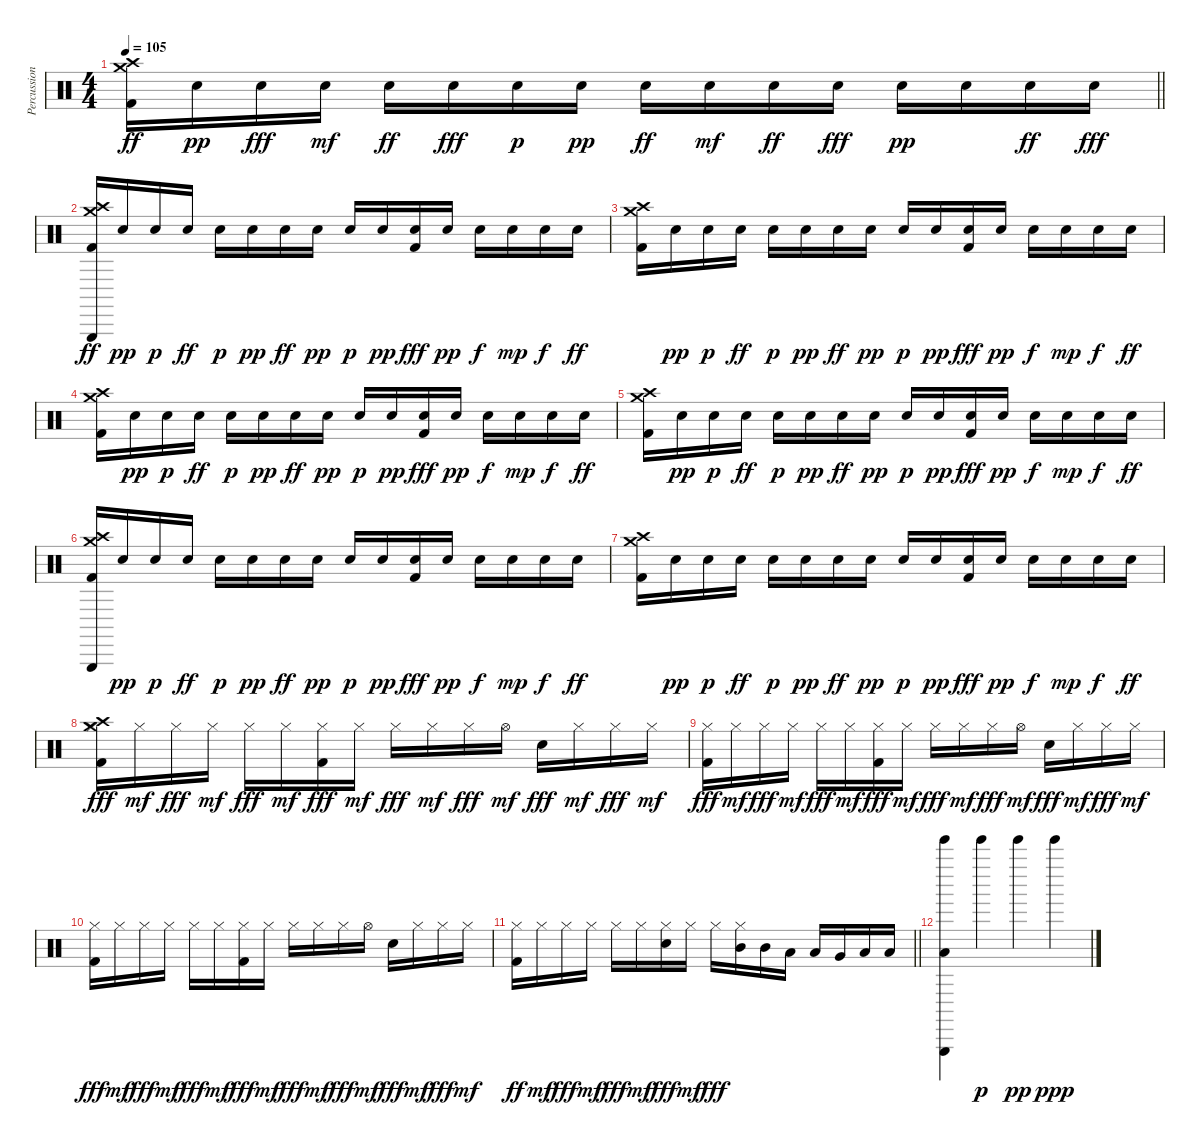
\track ("Percussion" "Percussion") {instrument percussion}
\staff {score}
\articulation defaults
\ts (4 4)
\tempo 105
\clef neutral
\barLineRight lightlight
\ks c
("Crash high (hit)" "Crash medium (hit)" "Kick (hit) 2").16{dy ff} "Electric Snare (hit)".16{dy pp} "Electric Snare (hit)".16{dy fff} "Electric Snare (hit)".16{dy mf} "Electric Snare (hit)".16{dy ff} "Electric Snare (hit)".16{dy fff} "Electric Snare (hit)".16{dy p} "Electric Snare (hit)".16{dy pp} "Electric Snare (hit)".16{dy ff} "Electric Snare (hit)".16{dy mf} "Electric Snare (hit)".16{dy ff} "Electric Snare (hit)".16{dy fff} "Electric Snare (hit)".16{dy pp} "Electric Snare (hit)".16 "Electric Snare (hit)".16{dy ff} "Electric Snare (hit)".16{dy fff} |
("Crash high (hit)" "Crash medium (hit)" "Triangle (hit)" "Kick (hit) 2").16{dy ff} "Electric Snare (hit)".16{dy pp} "Electric Snare (hit)".16{dy p} "Electric Snare (hit)".16{dy ff} "Electric Snare (hit)".16{dy p} "Electric Snare (hit)".16{dy pp} "Electric Snare (hit)".16{dy ff} "Electric Snare (hit)".16{dy pp} "Electric Snare (hit)".16{dy p} "Electric Snare (hit)".16{dy pp} ("Electric Snare (hit)" "Kick (hit) 2").16{dy fff} "Electric Snare (hit)".16{dy pp} "Electric Snare (hit)".16{dy f} "Electric Snare (hit)".16{dy mp} "Electric Snare (hit)".16{dy f} "Electric Snare (hit)".16{dy ff} |
("Crash high (hit)" "Crash medium (hit)" "Kick (hit) 2").16 "Electric Snare (hit)".16{dy pp} "Electric Snare (hit)".16{dy p} "Electric Snare (hit)".16{dy ff} "Electric Snare (hit)".16{dy p} "Electric Snare (hit)".16{dy pp} "Electric Snare (hit)".16{dy ff} "Electric Snare (hit)".16{dy pp} "Electric Snare (hit)".16{dy p} "Electric Snare (hit)".16{dy pp} ("Electric Snare (hit)" "Kick (hit) 2").16{dy fff} "Electric Snare (hit)".16{dy pp} "Electric Snare (hit)".16{dy f} "Electric Snare (hit)".16{dy mp} "Electric Snare (hit)".16{dy f} "Electric Snare (hit)".16{dy ff} |
("Crash high (hit)" "Crash medium (hit)" "Kick (hit) 2").16 "Electric Snare (hit)".16{dy pp} "Electric Snare (hit)".16{dy p} "Electric Snare (hit)".16{dy ff} "Electric Snare (hit)".16{dy p} "Electric Snare (hit)".16{dy pp} "Electric Snare (hit)".16{dy ff} "Electric Snare (hit)".16{dy pp} "Electric Snare (hit)".16{dy p} "Electric Snare (hit)".16{dy pp} ("Electric Snare (hit)" "Kick (hit) 2").16{dy fff} "Electric Snare (hit)".16{dy pp} "Electric Snare (hit)".16{dy f} "Electric Snare (hit)".16{dy mp} "Electric Snare (hit)".16{dy f} "Electric Snare (hit)".16{dy ff} |
("Crash high (hit)" "Crash medium (hit)" "Kick (hit) 2").16 "Electric Snare (hit)".16{dy pp} "Electric Snare (hit)".16{dy p} "Electric Snare (hit)".16{dy ff} "Electric Snare (hit)".16{dy p} "Electric Snare (hit)".16{dy pp} "Electric Snare (hit)".16{dy ff} "Electric Snare (hit)".16{dy pp} "Electric Snare (hit)".16{dy p} "Electric Snare (hit)".16{dy pp} ("Electric Snare (hit)" "Kick (hit) 2").16{dy fff} "Electric Snare (hit)".16{dy pp} "Electric Snare (hit)".16{dy f} "Electric Snare (hit)".16{dy mp} "Electric Snare (hit)".16{dy f} "Electric Snare (hit)".16{dy ff} |
("Crash high (hit)" "Crash medium (hit)" "Triangle (hit)" "Kick (hit) 2").16 "Electric Snare (hit)".16{dy pp} "Electric Snare (hit)".16{dy p} "Electric Snare (hit)".16{dy ff} "Electric Snare (hit)".16{dy p} "Electric Snare (hit)".16{dy pp} "Electric Snare (hit)".16{dy ff} "Electric Snare (hit)".16{dy pp} "Electric Snare (hit)".16{dy p} "Electric Snare (hit)".16{dy pp} ("Electric Snare (hit)" "Kick (hit) 2").16{dy fff} "Electric Snare (hit)".16{dy pp} "Electric Snare (hit)".16{dy f} "Electric Snare (hit)".16{dy mp} "Electric Snare (hit)".16{dy f} "Electric Snare (hit)".16{dy ff} |
("Crash high (hit)" "Crash medium (hit)" "Kick (hit) 2").16 "Electric Snare (hit)".16{dy pp} "Electric Snare (hit)".16{dy p} "Electric Snare (hit)".16{dy ff} "Electric Snare (hit)".16{dy p} "Electric Snare (hit)".16{dy pp} "Electric Snare (hit)".16{dy ff} "Electric Snare (hit)".16{dy pp} "Electric Snare (hit)".16{dy p} "Electric Snare (hit)".16{dy pp} ("Electric Snare (hit)" "Kick (hit) 2").16{dy fff} "Electric Snare (hit)".16{dy pp} "Electric Snare (hit)".16{dy f} "Electric Snare (hit)".16{dy mp} "Electric Snare (hit)".16{dy f} "Electric Snare (hit)".16{dy ff} |
("Crash high (hit)" "Crash medium (hit)" "Hi-Hat (closed)" "Kick (hit) 2").16{dy fff} "Hi-Hat (closed)".16{dy mf} "Hi-Hat (closed)".16{dy fff} "Hi-Hat (closed)".16{dy mf} "Hi-Hat (closed)".16{dy fff} "Hi-Hat (closed)".16{dy mf} ("Hi-Hat (closed)" "Kick (hit) 2").16{dy fff} "Hi-Hat (closed)".16{dy mf} "Hi-Hat (closed)".16{dy fff} "Hi-Hat (closed)".16{dy mf} "Hi-Hat (closed)".16{dy fff} "Hi-Hat (open)".16{dy mf} "Electric Snare (hit)".16{dy fff} "Hi-Hat (closed)".16{dy mf} "Hi-Hat (closed)".16{dy fff} "Hi-Hat (closed)".16{dy mf} |
("Hi-Hat (closed)" "Kick (hit) 2").16{dy fff} "Hi-Hat (closed)".16{dy mf} "Hi-Hat (closed)".16{dy fff} "Hi-Hat (closed)".16{dy mf} "Hi-Hat (closed)".16{dy fff} "Hi-Hat (closed)".16{dy mf} ("Hi-Hat (closed)" "Kick (hit) 2").16{dy fff} "Hi-Hat (closed)".16{dy mf} "Hi-Hat (closed)".16{dy fff} "Hi-Hat (closed)".16{dy mf} "Hi-Hat (closed)".16{dy fff} "Hi-Hat (open)".16{dy mf} "Electric Snare (hit)".16{dy fff} "Hi-Hat (closed)".16{dy mf} "Hi-Hat (closed)".16{dy fff} "Hi-Hat (closed)".16{dy mf} |
("Hi-Hat (closed)" "Kick (hit) 2").16{dy fff} "Hi-Hat (closed)".16{dy mf} "Hi-Hat (closed)".16{dy fff} "Hi-Hat (closed)".16{dy mf} "Hi-Hat (closed)".16{dy fff} "Hi-Hat (closed)".16{dy mf} ("Hi-Hat (closed)" "Kick (hit) 2").16{dy fff} "Hi-Hat (closed)".16{dy mf} "Hi-Hat (closed)".16{dy fff} "Hi-Hat (closed)".16{dy mf} "Hi-Hat (closed)".16{dy fff} "Hi-Hat (open)".16{dy mf} "Electric Snare (hit)".16{dy fff} "Hi-Hat (closed)".16{dy mf} "Hi-Hat (closed)".16{dy fff} "Hi-Hat (closed)".16{dy mf} |
\barLineRight lightlight
("Hi-Hat (closed)" "Kick (hit) 2").16{dy ff} "Hi-Hat (closed)".16{dy mf} "Hi-Hat (closed)".16{dy fff} "Hi-Hat (closed)".16{dy mf} "Hi-Hat (closed)".16{dy fff} "Hi-Hat (closed)".16{dy mf} ("Hi-Hat (closed)" "Electric Snare (hit)").16{dy fff} "Hi-Hat (closed)".16{dy mf} "Hi-Hat (closed)".16{dy fff} ("Hi-Hat (closed)" "Mid Tom (hit)").16 "Mid Tom (hit)".16 "Low Tom (hit)".16 "Low Tom (hit)".16 "Very Low Tom (hit)".16 "Low Floor Tom (hit)".16 "Low Floor Tom (hit)".16 |
("Tinkle Bell (hit)" "Triangle (hit)" "Low Floor Tom (hit)").4 "Tinkle Bell (hit)".4{dy p} "Tinkle Bell (hit)".4{dy pp} "Tinkle Bell (hit)".4{dy ppp}
